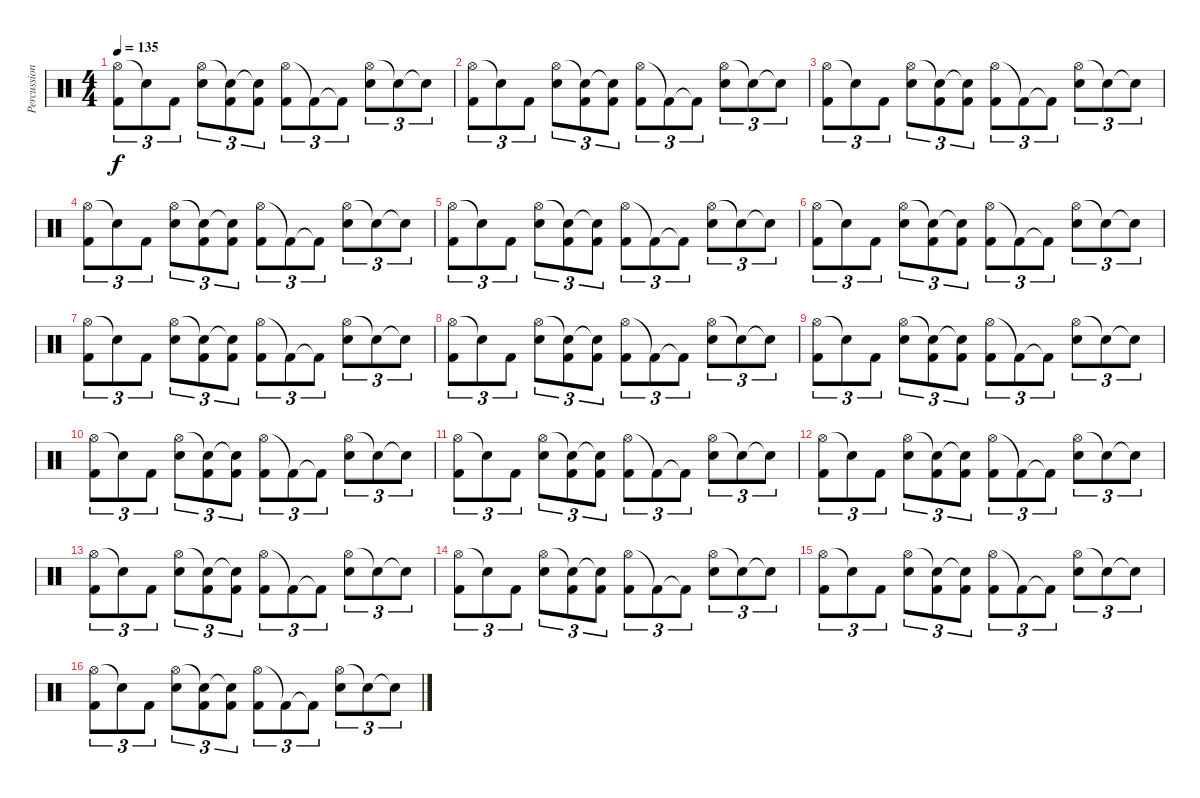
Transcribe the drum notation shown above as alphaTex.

\track ("Percussions" "Percussion") {instrument percussion}
\staff {score}
\articulation defaults
\ts (4 4)
\tempo 135
\clef neutral
\ks c
("Hi-Hat (open)" "Kick (hit) 2").8{tu (3 2) dy f} "Snare (hit)"{t}.8{tu (3 2)} "Kick (hit) 2".8{tu (3 2)} ("Hi-Hat (open)" "Snare (hit) 2").8{tu (3 2)} ("Snare (hit)"{t} "Kick (hit) 2").8{tu (3 2)} ("Snare (hit)"{t} "Kick (hit) 2").8{tu (3 2)} ("Hi-Hat (open)" "Kick (hit) 2").8{tu (3 2)} "Kick (hit) 2"{t}.8{tu (3 2)} "Kick (hit) 2"{t}.8{tu (3 2)} ("Hi-Hat (open)" "Snare (hit) 2").8{tu (3 2)} "Snare (hit)"{t}.8{tu (3 2)} "Snare (hit)"{t}.8{tu (3 2)} |
("Hi-Hat (open)" "Kick (hit) 2").8{tu (3 2)} "Snare (hit)"{t}.8{tu (3 2)} "Kick (hit) 2".8{tu (3 2)} ("Hi-Hat (open)" "Snare (hit) 2").8{tu (3 2)} ("Snare (hit)"{t} "Kick (hit) 2").8{tu (3 2)} ("Snare (hit)"{t} "Kick (hit) 2").8{tu (3 2)} ("Hi-Hat (open)" "Kick (hit) 2").8{tu (3 2)} "Kick (hit) 2"{t}.8{tu (3 2)} "Kick (hit) 2"{t}.8{tu (3 2)} ("Hi-Hat (open)" "Snare (hit) 2").8{tu (3 2)} "Snare (hit)"{t}.8{tu (3 2)} "Snare (hit)"{t}.8{tu (3 2)} |
("Hi-Hat (open)" "Kick (hit) 2").8{tu (3 2)} "Snare (hit)"{t}.8{tu (3 2)} "Kick (hit) 2".8{tu (3 2)} ("Hi-Hat (open)" "Snare (hit) 2").8{tu (3 2)} ("Snare (hit)"{t} "Kick (hit) 2").8{tu (3 2)} ("Snare (hit)"{t} "Kick (hit) 2").8{tu (3 2)} ("Hi-Hat (open)" "Kick (hit) 2").8{tu (3 2)} "Kick (hit) 2"{t}.8{tu (3 2)} "Kick (hit) 2"{t}.8{tu (3 2)} ("Hi-Hat (open)" "Snare (hit) 2").8{tu (3 2)} "Snare (hit)"{t}.8{tu (3 2)} "Snare (hit)"{t}.8{tu (3 2)} |
("Hi-Hat (open)" "Kick (hit) 2").8{tu (3 2)} "Snare (hit)"{t}.8{tu (3 2)} "Kick (hit) 2".8{tu (3 2)} ("Hi-Hat (open)" "Snare (hit) 2").8{tu (3 2)} ("Snare (hit)"{t} "Kick (hit) 2").8{tu (3 2)} ("Snare (hit)"{t} "Kick (hit) 2").8{tu (3 2)} ("Hi-Hat (open)" "Kick (hit) 2").8{tu (3 2)} "Kick (hit) 2"{t}.8{tu (3 2)} "Kick (hit) 2"{t}.8{tu (3 2)} ("Hi-Hat (open)" "Snare (hit) 2").8{tu (3 2)} "Snare (hit)"{t}.8{tu (3 2)} "Snare (hit)"{t}.8{tu (3 2)} |
("Hi-Hat (open)" "Kick (hit) 2").8{tu (3 2)} "Snare (hit)"{t}.8{tu (3 2)} "Kick (hit) 2".8{tu (3 2)} ("Hi-Hat (open)" "Snare (hit) 2").8{tu (3 2)} ("Snare (hit)"{t} "Kick (hit) 2").8{tu (3 2)} ("Snare (hit)"{t} "Kick (hit) 2").8{tu (3 2)} ("Hi-Hat (open)" "Kick (hit) 2").8{tu (3 2)} "Kick (hit) 2"{t}.8{tu (3 2)} "Kick (hit) 2"{t}.8{tu (3 2)} ("Hi-Hat (open)" "Snare (hit) 2").8{tu (3 2)} "Snare (hit)"{t}.8{tu (3 2)} "Snare (hit)"{t}.8{tu (3 2)} |
("Hi-Hat (open)" "Kick (hit) 2").8{tu (3 2)} "Snare (hit)"{t}.8{tu (3 2)} "Kick (hit) 2".8{tu (3 2)} ("Hi-Hat (open)" "Snare (hit) 2").8{tu (3 2)} ("Snare (hit)"{t} "Kick (hit) 2").8{tu (3 2)} ("Snare (hit)"{t} "Kick (hit) 2").8{tu (3 2)} ("Hi-Hat (open)" "Kick (hit) 2").8{tu (3 2)} "Kick (hit) 2"{t}.8{tu (3 2)} "Kick (hit) 2"{t}.8{tu (3 2)} ("Hi-Hat (open)" "Snare (hit) 2").8{tu (3 2)} "Snare (hit)"{t}.8{tu (3 2)} "Snare (hit)"{t}.8{tu (3 2)} |
("Hi-Hat (open)" "Kick (hit) 2").8{tu (3 2)} "Snare (hit)"{t}.8{tu (3 2)} "Kick (hit) 2".8{tu (3 2)} ("Hi-Hat (open)" "Snare (hit) 2").8{tu (3 2)} ("Snare (hit)"{t} "Kick (hit) 2").8{tu (3 2)} ("Snare (hit)"{t} "Kick (hit) 2").8{tu (3 2)} ("Hi-Hat (open)" "Kick (hit) 2").8{tu (3 2)} "Kick (hit) 2"{t}.8{tu (3 2)} "Kick (hit) 2"{t}.8{tu (3 2)} ("Hi-Hat (open)" "Snare (hit) 2").8{tu (3 2)} "Snare (hit)"{t}.8{tu (3 2)} "Snare (hit)"{t}.8{tu (3 2)} |
("Hi-Hat (open)" "Kick (hit) 2").8{tu (3 2)} "Snare (hit)"{t}.8{tu (3 2)} "Kick (hit) 2".8{tu (3 2)} ("Hi-Hat (open)" "Snare (hit) 2").8{tu (3 2)} ("Snare (hit)"{t} "Kick (hit) 2").8{tu (3 2)} ("Snare (hit)"{t} "Kick (hit) 2").8{tu (3 2)} ("Hi-Hat (open)" "Kick (hit) 2").8{tu (3 2)} "Kick (hit) 2"{t}.8{tu (3 2)} "Kick (hit) 2"{t}.8{tu (3 2)} ("Hi-Hat (open)" "Snare (hit) 2").8{tu (3 2)} "Snare (hit)"{t}.8{tu (3 2)} "Snare (hit)"{t}.8{tu (3 2)} |
("Hi-Hat (open)" "Kick (hit) 2").8{tu (3 2)} "Snare (hit)"{t}.8{tu (3 2)} "Kick (hit) 2".8{tu (3 2)} ("Hi-Hat (open)" "Snare (hit) 2").8{tu (3 2)} ("Snare (hit)"{t} "Kick (hit) 2").8{tu (3 2)} ("Snare (hit)"{t} "Kick (hit) 2").8{tu (3 2)} ("Hi-Hat (open)" "Kick (hit) 2").8{tu (3 2)} "Kick (hit) 2"{t}.8{tu (3 2)} "Kick (hit) 2"{t}.8{tu (3 2)} ("Hi-Hat (open)" "Snare (hit) 2").8{tu (3 2)} "Snare (hit)"{t}.8{tu (3 2)} "Snare (hit)"{t}.8{tu (3 2)} |
("Hi-Hat (open)" "Kick (hit) 2").8{tu (3 2)} "Snare (hit)"{t}.8{tu (3 2)} "Kick (hit) 2".8{tu (3 2)} ("Hi-Hat (open)" "Snare (hit) 2").8{tu (3 2)} ("Snare (hit)"{t} "Kick (hit) 2").8{tu (3 2)} ("Snare (hit)"{t} "Kick (hit) 2").8{tu (3 2)} ("Hi-Hat (open)" "Kick (hit) 2").8{tu (3 2)} "Kick (hit) 2"{t}.8{tu (3 2)} "Kick (hit) 2"{t}.8{tu (3 2)} ("Hi-Hat (open)" "Snare (hit) 2").8{tu (3 2)} "Snare (hit)"{t}.8{tu (3 2)} "Snare (hit)"{t}.8{tu (3 2)} |
("Hi-Hat (open)" "Kick (hit) 2").8{tu (3 2)} "Snare (hit)"{t}.8{tu (3 2)} "Kick (hit) 2".8{tu (3 2)} ("Hi-Hat (open)" "Snare (hit) 2").8{tu (3 2)} ("Snare (hit)"{t} "Kick (hit) 2").8{tu (3 2)} ("Snare (hit)"{t} "Kick (hit) 2").8{tu (3 2)} ("Hi-Hat (open)" "Kick (hit) 2").8{tu (3 2)} "Kick (hit) 2"{t}.8{tu (3 2)} "Kick (hit) 2"{t}.8{tu (3 2)} ("Hi-Hat (open)" "Snare (hit) 2").8{tu (3 2)} "Snare (hit)"{t}.8{tu (3 2)} "Snare (hit)"{t}.8{tu (3 2)} |
("Hi-Hat (open)" "Kick (hit) 2").8{tu (3 2)} "Snare (hit)"{t}.8{tu (3 2)} "Kick (hit) 2".8{tu (3 2)} ("Hi-Hat (open)" "Snare (hit) 2").8{tu (3 2)} ("Snare (hit)"{t} "Kick (hit) 2").8{tu (3 2)} ("Snare (hit)"{t} "Kick (hit) 2").8{tu (3 2)} ("Hi-Hat (open)" "Kick (hit) 2").8{tu (3 2)} "Kick (hit) 2"{t}.8{tu (3 2)} "Kick (hit) 2"{t}.8{tu (3 2)} ("Hi-Hat (open)" "Snare (hit) 2").8{tu (3 2)} "Snare (hit)"{t}.8{tu (3 2)} "Snare (hit)"{t}.8{tu (3 2)} |
("Hi-Hat (open)" "Kick (hit) 2").8{tu (3 2)} "Snare (hit)"{t}.8{tu (3 2)} "Kick (hit) 2".8{tu (3 2)} ("Hi-Hat (open)" "Snare (hit) 2").8{tu (3 2)} ("Snare (hit)"{t} "Kick (hit) 2").8{tu (3 2)} ("Snare (hit)"{t} "Kick (hit) 2").8{tu (3 2)} ("Hi-Hat (open)" "Kick (hit) 2").8{tu (3 2)} "Kick (hit) 2"{t}.8{tu (3 2)} "Kick (hit) 2"{t}.8{tu (3 2)} ("Hi-Hat (open)" "Snare (hit) 2").8{tu (3 2)} "Snare (hit)"{t}.8{tu (3 2)} "Snare (hit)"{t}.8{tu (3 2)} |
("Hi-Hat (open)" "Kick (hit) 2").8{tu (3 2)} "Snare (hit)"{t}.8{tu (3 2)} "Kick (hit) 2".8{tu (3 2)} ("Hi-Hat (open)" "Snare (hit) 2").8{tu (3 2)} ("Snare (hit)"{t} "Kick (hit) 2").8{tu (3 2)} ("Snare (hit)"{t} "Kick (hit) 2").8{tu (3 2)} ("Hi-Hat (open)" "Kick (hit) 2").8{tu (3 2)} "Kick (hit) 2"{t}.8{tu (3 2)} "Kick (hit) 2"{t}.8{tu (3 2)} ("Hi-Hat (open)" "Snare (hit) 2").8{tu (3 2)} "Snare (hit)"{t}.8{tu (3 2)} "Snare (hit)"{t}.8{tu (3 2)} |
("Hi-Hat (open)" "Kick (hit) 2").8{tu (3 2)} "Snare (hit)"{t}.8{tu (3 2)} "Kick (hit) 2".8{tu (3 2)} ("Hi-Hat (open)" "Snare (hit) 2").8{tu (3 2)} ("Snare (hit)"{t} "Kick (hit) 2").8{tu (3 2)} ("Snare (hit)"{t} "Kick (hit) 2").8{tu (3 2)} ("Hi-Hat (open)" "Kick (hit) 2").8{tu (3 2)} "Kick (hit) 2"{t}.8{tu (3 2)} "Kick (hit) 2"{t}.8{tu (3 2)} ("Hi-Hat (open)" "Snare (hit) 2").8{tu (3 2)} "Snare (hit)"{t}.8{tu (3 2)} "Snare (hit)"{t}.8{tu (3 2)} |
("Hi-Hat (open)" "Kick (hit) 2").8{tu (3 2)} "Snare (hit)"{t}.8{tu (3 2)} "Kick (hit) 2".8{tu (3 2)} ("Hi-Hat (open)" "Snare (hit) 2").8{tu (3 2)} ("Snare (hit)"{t} "Kick (hit) 2").8{tu (3 2)} ("Snare (hit)"{t} "Kick (hit) 2").8{tu (3 2)} ("Hi-Hat (open)" "Kick (hit) 2").8{tu (3 2)} "Kick (hit) 2"{t}.8{tu (3 2)} "Kick (hit) 2"{t}.8{tu (3 2)} ("Hi-Hat (open)" "Snare (hit) 2").8{tu (3 2)} "Snare (hit)"{t}.8{tu (3 2)} "Snare (hit)"{t}.8{tu (3 2)}
